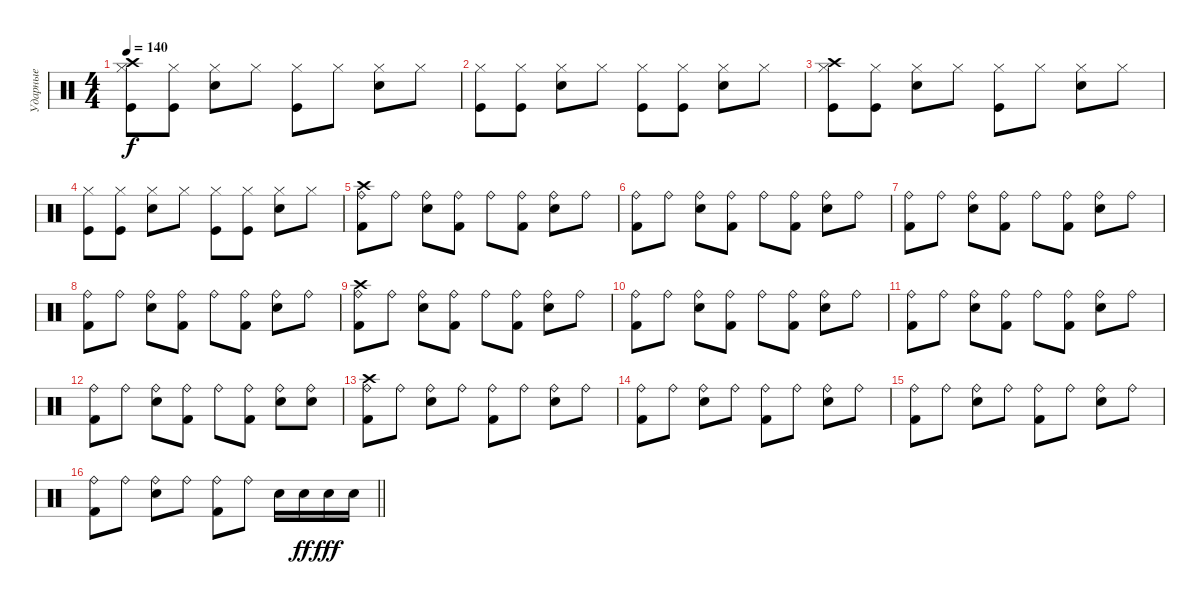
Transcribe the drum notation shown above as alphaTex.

\track ("Ударные" "Ударные") {solo instrument percussion}
\staff {score}
\articulation defaults
\ts (4 4)
\tempo 140
\clef neutral
\ks c
("Kick (hit)" "Hi-Hat (closed)" "Crash high (hit)").8{dy f} ("Kick (hit)" "Hi-Hat (closed)").8 ("Snare (hit) 2" "Hi-Hat (closed)").8 "Hi-Hat (closed)".8 ("Kick (hit)" "Hi-Hat (closed)").8 "Hi-Hat (closed)".8 ("Snare (hit) 2" "Hi-Hat (closed)").8 "Hi-Hat (closed)".8 |
("Kick (hit)" "Hi-Hat (closed)").8 ("Kick (hit)" "Hi-Hat (closed)").8 ("Snare (hit) 2" "Hi-Hat (closed)").8 "Hi-Hat (closed)".8 ("Kick (hit)" "Hi-Hat (closed)").8 ("Kick (hit)" "Hi-Hat (closed)").8 ("Snare (hit) 2" "Hi-Hat (closed)").8 "Hi-Hat (closed)".8 |
("Kick (hit)" "Hi-Hat (closed)" "Crash high (hit)").8 ("Kick (hit)" "Hi-Hat (closed)").8 ("Snare (hit) 2" "Hi-Hat (closed)").8 "Hi-Hat (closed)".8 ("Kick (hit)" "Hi-Hat (closed)").8 "Hi-Hat (closed)".8 ("Snare (hit) 2" "Hi-Hat (closed)").8 "Hi-Hat (closed)".8 |
("Kick (hit)" "Hi-Hat (closed)").8 ("Kick (hit)" "Hi-Hat (closed)").8 ("Snare (hit) 2" "Hi-Hat (closed)").8 "Hi-Hat (closed)".8 ("Kick (hit)" "Hi-Hat (closed)").8 ("Kick (hit)" "Hi-Hat (closed)").8 ("Snare (hit) 2" "Hi-Hat (closed)").8 "Hi-Hat (closed)".8 |
("Ride (bell)" "Kick (hit) 2" "Crash high (hit)").8 "Ride (bell)".8 ("Ride (bell)" "Electric Snare (hit)").8 ("Ride (bell)" "Kick (hit) 2").8 "Ride (bell)".8 ("Ride (bell)" "Kick (hit) 2").8 ("Ride (bell)" "Electric Snare (hit)").8 "Ride (bell)".8 |
("Ride (bell)" "Kick (hit) 2").8 "Ride (bell)".8 ("Ride (bell)" "Electric Snare (hit)").8 ("Ride (bell)" "Kick (hit) 2").8 "Ride (bell)".8 ("Ride (bell)" "Kick (hit) 2").8 ("Ride (bell)" "Electric Snare (hit)").8 "Ride (bell)".8 |
("Ride (bell)" "Kick (hit) 2").8 "Ride (bell)".8 ("Ride (bell)" "Electric Snare (hit)").8 ("Ride (bell)" "Kick (hit) 2").8 "Ride (bell)".8 ("Ride (bell)" "Kick (hit) 2").8 ("Ride (bell)" "Electric Snare (hit)").8 "Ride (bell)".8 |
("Ride (bell)" "Kick (hit) 2").8 "Ride (bell)".8 ("Ride (bell)" "Electric Snare (hit)").8 ("Ride (bell)" "Kick (hit) 2").8 "Ride (bell)".8 ("Ride (bell)" "Kick (hit) 2").8 ("Ride (bell)" "Electric Snare (hit)").8 "Ride (bell)".8 |
("Ride (bell)" "Kick (hit) 2" "Crash high (hit)").8 "Ride (bell)".8 ("Ride (bell)" "Electric Snare (hit)").8 ("Ride (bell)" "Kick (hit) 2").8 "Ride (bell)".8 ("Ride (bell)" "Kick (hit) 2").8 ("Ride (bell)" "Electric Snare (hit)").8 "Ride (bell)".8 |
("Ride (bell)" "Kick (hit) 2").8 "Ride (bell)".8 ("Ride (bell)" "Electric Snare (hit)").8 ("Ride (bell)" "Kick (hit) 2").8 "Ride (bell)".8 ("Ride (bell)" "Kick (hit) 2").8 ("Ride (bell)" "Electric Snare (hit)").8 "Ride (bell)".8 |
("Ride (bell)" "Kick (hit) 2").8 "Ride (bell)".8 ("Ride (bell)" "Electric Snare (hit)").8 ("Ride (bell)" "Kick (hit) 2").8 "Ride (bell)".8 ("Ride (bell)" "Kick (hit) 2").8 ("Ride (bell)" "Electric Snare (hit)").8 "Ride (bell)".8 |
("Ride (bell)" "Kick (hit) 2").8 "Ride (bell)".8 ("Ride (bell)" "Electric Snare (hit)").8 ("Ride (bell)" "Kick (hit) 2").8 "Ride (bell)".8 ("Ride (bell)" "Kick (hit) 2").8 ("Ride (bell)" "Electric Snare (hit)").8 ("Ride (bell)" "Electric Snare (hit)").8 |
("Ride (bell)" "Kick (hit) 2" "Crash high (hit)").8 "Ride (bell)".8 ("Ride (bell)" "Electric Snare (hit)").8 "Ride (bell)".8 ("Ride (bell)" "Kick (hit) 2").8 "Ride (bell)".8 ("Ride (bell)" "Electric Snare (hit)").8 "Ride (bell)".8 |
("Ride (bell)" "Kick (hit) 2").8 "Ride (bell)".8 ("Ride (bell)" "Electric Snare (hit)").8 "Ride (bell)".8 ("Ride (bell)" "Kick (hit) 2").8 "Ride (bell)".8 ("Ride (bell)" "Electric Snare (hit)").8 "Ride (bell)".8 |
("Ride (bell)" "Kick (hit) 2").8 "Ride (bell)".8 ("Ride (bell)" "Electric Snare (hit)").8 "Ride (bell)".8 ("Ride (bell)" "Kick (hit) 2").8 "Ride (bell)".8 ("Ride (bell)" "Electric Snare (hit)").8 "Ride (bell)".8 |
\barLineRight lightlight
("Ride (bell)" "Kick (hit) 2").8 "Ride (bell)".8 ("Ride (bell)" "Electric Snare (hit)").8 "Ride (bell)".8 ("Ride (bell)" "Kick (hit) 2").8 "Ride (bell)".8 "Electric Snare (hit)".16 "Electric Snare (hit)".16{dy ff} "Electric Snare (hit)".16{dy fff} "Electric Snare (hit)".16
